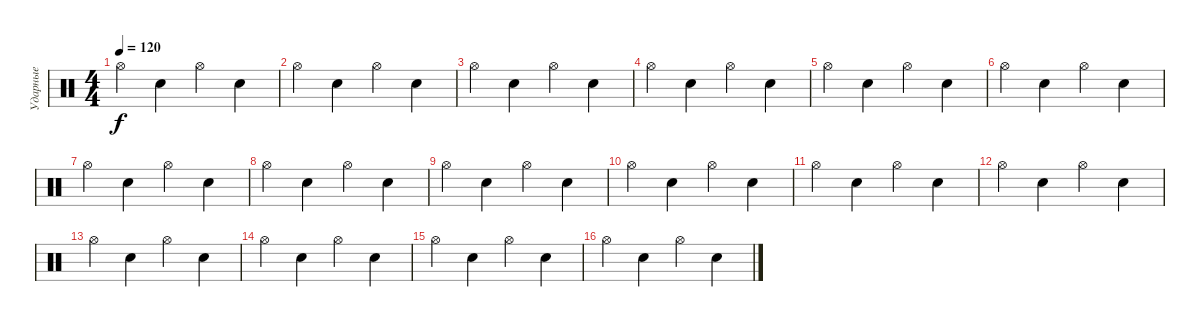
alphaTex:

\track ("Ударные" "Ударные") {instrument percussion}
\staff {score}
\articulation defaults
\ts (4 4)
\tempo 120
\clef neutral
\ks c "Hi-Hat (open)".4{dy f} "Electric Snare (hit)".4 "Hi-Hat (open)".4 "Electric Snare (hit)".4
|
"Hi-Hat (open)".4 "Electric Snare (hit)".4 "Hi-Hat (open)".4 "Electric Snare (hit)".4 |
"Hi-Hat (open)".4 "Electric Snare (hit)".4 "Hi-Hat (open)".4 "Electric Snare (hit)".4 |
"Hi-Hat (open)".4 "Electric Snare (hit)".4 "Hi-Hat (open)".4 "Electric Snare (hit)".4 |
"Hi-Hat (open)".4 "Electric Snare (hit)".4 "Hi-Hat (open)".4 "Electric Snare (hit)".4 |
"Hi-Hat (open)".4 "Electric Snare (hit)".4 "Hi-Hat (open)".4 "Electric Snare (hit)".4 |
"Hi-Hat (open)".4 "Electric Snare (hit)".4 "Hi-Hat (open)".4 "Electric Snare (hit)".4 |
"Hi-Hat (open)".4 "Electric Snare (hit)".4 "Hi-Hat (open)".4 "Electric Snare (hit)".4 |
"Hi-Hat (open)".4 "Electric Snare (hit)".4 "Hi-Hat (open)".4 "Electric Snare (hit)".4 |
"Hi-Hat (open)".4 "Electric Snare (hit)".4 "Hi-Hat (open)".4 "Electric Snare (hit)".4 |
"Hi-Hat (open)".4 "Electric Snare (hit)".4 "Hi-Hat (open)".4 "Electric Snare (hit)".4 |
"Hi-Hat (open)".4 "Electric Snare (hit)".4 "Hi-Hat (open)".4 "Electric Snare (hit)".4 |
"Hi-Hat (open)".4 "Electric Snare (hit)".4 "Hi-Hat (open)".4 "Electric Snare (hit)".4 |
"Hi-Hat (open)".4 "Electric Snare (hit)".4 "Hi-Hat (open)".4 "Electric Snare (hit)".4 |
"Hi-Hat (open)".4 "Electric Snare (hit)".4 "Hi-Hat (open)".4 "Electric Snare (hit)".4 |
"Hi-Hat (open)".4 "Electric Snare (hit)".4 "Hi-Hat (open)".4 "Electric Snare (hit)".4
